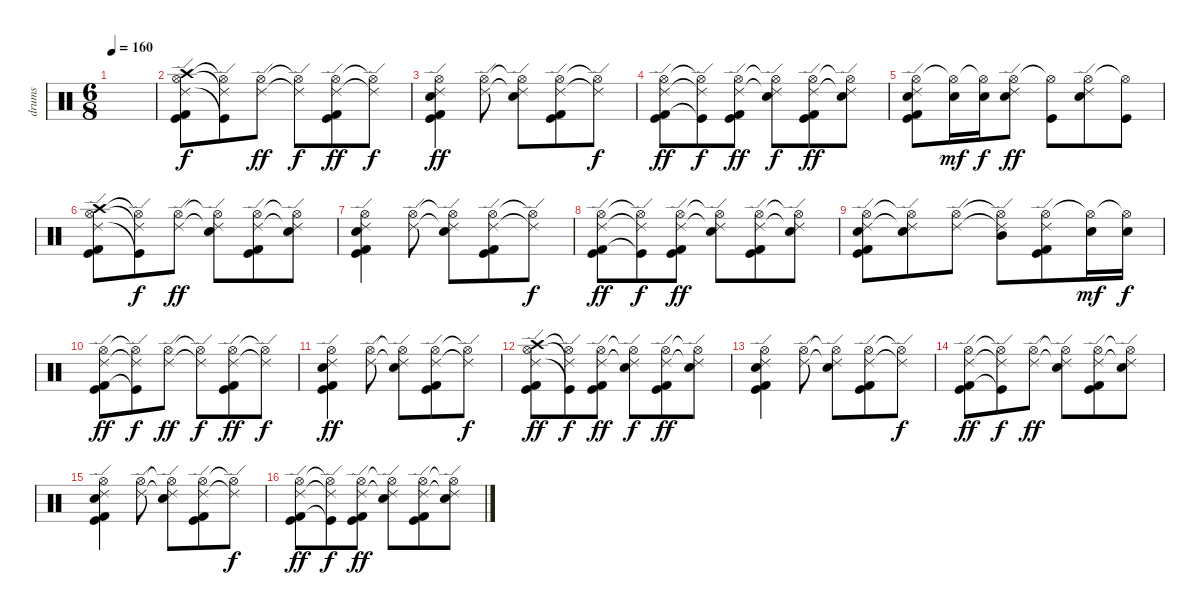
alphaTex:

\track ("drums" "drums") {instrument percussion}
\staff {score}
\articulation defaults
\ts (6 8)
\tempo 160
\clef neutral
\ks c
|
("Crash high (hit)" "Hi-Hat (open)" "Ride (edge) 2" "Kick (hit) 2" "Kick (hit)").8 ("Hi-Hat (open)"{t} "Ride (edge) 2"{t} "Kick (hit)"{t}).8{dy f} ("Hi-Hat (open)" "Ride (edge) 2").8{dy ff} ("Hi-Hat (open)"{t} "Ride (edge) 2"{t}).8{dy f} ("Hi-Hat (open)" "Ride (edge) 2" "Kick (hit) 2" "Kick (hit)").8{dy ff} ("Hi-Hat (open)"{t} "Ride (edge) 2"{t}).8{dy f} |
("Hi-Hat (open)" "Ride (edge) 2" "Snare (hit) 2" "Kick (hit) 2" "Kick (hit)").4{dy ff} ("Hi-Hat (open)" "Ride (edge) 2").8 ("Hi-Hat (open)"{t} "Ride (edge) 2"{t} "Electric Snare (hit)").8 ("Hi-Hat (open)" "Ride (edge) 2" "Kick (hit) 2" "Kick (hit)").8 ("Hi-Hat (open)"{t} "Ride (edge) 2"{t}).8{dy f} |
("Hi-Hat (open)" "Ride (edge) 2" "Kick (hit) 2" "Kick (hit)").8{dy ff} ("Hi-Hat (open)"{t} "Ride (edge) 2"{t} "Kick (hit)"{t}).8{dy f} ("Hi-Hat (open)" "Ride (edge) 2" "Kick (hit) 2" "Kick (hit)").8{dy ff} ("Hi-Hat (open)"{t} "Ride (edge) 2"{t} "Electric Snare (hit)").8{dy f} ("Hi-Hat (open)" "Ride (edge) 2" "Kick (hit) 2" "Kick (hit)").8{dy ff} ("Hi-Hat (open)"{t} "Ride (edge) 2"{t} "Electric Snare (hit)").8 |
("Hi-Hat (open)" "Ride (edge) 2" "Snare (hit) 2" "Kick (hit) 2" "Kick (hit)").8 ("Hi-Hat (open)"{t} "Electric Snare (hit)").16{dy mf} ("Hi-Hat (open)"{t} "Electric Snare (hit)").16{dy f} ("Hi-Hat (open)" "Ride (edge) 2" "Electric Snare (hit)").8{dy ff} ("Hi-Hat (open)"{t} "Kick (hit)").8 ("Hi-Hat (open)" "Ride (edge) 2" "Electric Snare (hit)").8 ("Hi-Hat (open)"{t} "Kick (hit)").8 |
("Crash high (hit)" "Hi-Hat (open)" "Ride (edge) 2" "Kick (hit) 2" "Kick (hit)").8 ("Hi-Hat (open)"{t} "Ride (edge) 2"{t} "Kick (hit)"{t}).8{dy f} ("Hi-Hat (open)" "Ride (edge) 2").8{dy ff} ("Hi-Hat (open)"{t} "Ride (edge) 2"{t} "Electric Snare (hit)").8 ("Hi-Hat (open)" "Ride (edge) 2" "Kick (hit) 2" "Kick (hit)").8 ("Hi-Hat (open)"{t} "Ride (edge) 2"{t} "Electric Snare (hit)").8 |
("Hi-Hat (open)" "Ride (edge) 2" "Snare (hit) 2" "Kick (hit) 2" "Kick (hit)").4 ("Hi-Hat (open)" "Ride (edge) 2").8 ("Hi-Hat (open)"{t} "Ride (edge) 2"{t} "Electric Snare (hit)").8 ("Hi-Hat (open)" "Ride (edge) 2" "Kick (hit) 2" "Kick (hit)").8 ("Hi-Hat (open)"{t} "Ride (edge) 2"{t}).8{dy f} |
("Hi-Hat (open)" "Ride (edge) 2" "Kick (hit) 2" "Kick (hit)").8{dy ff} ("Hi-Hat (open)"{t} "Ride (edge) 2"{t} "Kick (hit)"{t}).8{dy f} ("Hi-Hat (open)" "Ride (edge) 2" "Kick (hit) 2" "Kick (hit)").8{dy ff} ("Hi-Hat (open)"{t} "Ride (edge) 2"{t} "Electric Snare (hit)").8 ("Hi-Hat (open)" "Ride (edge) 2" "Kick (hit) 2" "Kick (hit)").8 ("Hi-Hat (open)"{t} "Ride (edge) 2"{t} "Electric Snare (hit)").8 |
("Hi-Hat (open)" "Ride (edge) 2" "Snare (hit) 2" "Kick (hit) 2" "Kick (hit)").8 ("Hi-Hat (open)"{t} "Ride (edge) 2"{t} "Electric Snare (hit)").8 ("Hi-Hat (open)" "Ride (edge) 2").8 ("Hi-Hat (open)"{t} "Ride (edge) 2"{t} "Mid Tom (hit)").8 ("Hi-Hat (open)" "Ride (edge) 2" "Kick (hit) 2" "Kick (hit)").8 ("Hi-Hat (open)"{t} "Electric Snare (hit)").16{dy mf} ("Hi-Hat (open)"{t} "Electric Snare (hit)").16{dy f} |
("Hi-Hat (open)" "Ride (edge) 2" "Kick (hit) 2" "Kick (hit)").8{dy ff} ("Hi-Hat (open)"{t} "Ride (edge) 2"{t} "Kick (hit)"{t}).8{dy f} ("Hi-Hat (open)" "Ride (edge) 2").8{dy ff} ("Hi-Hat (open)"{t} "Ride (edge) 2"{t}).8{dy f} ("Hi-Hat (open)" "Ride (edge) 2" "Kick (hit) 2" "Kick (hit)").8{dy ff} ("Hi-Hat (open)"{t} "Ride (edge) 2"{t}).8{dy f} |
("Hi-Hat (open)" "Ride (edge) 2" "Snare (hit) 2" "Kick (hit) 2" "Kick (hit)").4{dy ff} ("Hi-Hat (open)" "Ride (edge) 2").8 ("Hi-Hat (open)"{t} "Ride (edge) 2"{t} "Electric Snare (hit)").8 ("Hi-Hat (open)" "Ride (edge) 2" "Kick (hit) 2" "Kick (hit)").8 ("Hi-Hat (open)"{t} "Ride (edge) 2"{t}).8{dy f} |
("Crash high (hit)" "Hi-Hat (open)" "Ride (edge) 2" "Kick (hit) 2" "Kick (hit)").8{dy ff} ("Hi-Hat (open)"{t} "Ride (edge) 2"{t} "Kick (hit)"{t}).8{dy f} ("Hi-Hat (open)" "Ride (edge) 2" "Kick (hit) 2" "Kick (hit)").8{dy ff} ("Hi-Hat (open)"{t} "Ride (edge) 2"{t} "Electric Snare (hit)").8{dy f} ("Hi-Hat (open)" "Ride (edge) 2" "Kick (hit) 2" "Kick (hit)").8{dy ff} ("Hi-Hat (open)"{t} "Ride (edge) 2"{t} "Electric Snare (hit)").8 |
("Hi-Hat (open)" "Ride (edge) 2" "Snare (hit) 2" "Kick (hit) 2" "Kick (hit)").4 ("Hi-Hat (open)" "Ride (edge) 2").8 ("Hi-Hat (open)"{t} "Ride (edge) 2"{t} "Electric Snare (hit)").8 ("Hi-Hat (open)" "Ride (edge) 2" "Kick (hit) 2" "Kick (hit)").8 ("Hi-Hat (open)"{t} "Ride (edge) 2"{t}).8{dy f} |
("Hi-Hat (open)" "Ride (edge) 2" "Kick (hit) 2" "Kick (hit)").8{dy ff} ("Hi-Hat (open)"{t} "Ride (edge) 2"{t} "Kick (hit)"{t}).8{dy f} ("Hi-Hat (open)" "Ride (edge) 2").8{dy ff} ("Hi-Hat (open)"{t} "Ride (edge) 2"{t} "Electric Snare (hit)").8 ("Hi-Hat (open)" "Ride (edge) 2" "Kick (hit) 2" "Kick (hit)").8 ("Hi-Hat (open)"{t} "Ride (edge) 2"{t} "Electric Snare (hit)").8 |
("Hi-Hat (open)" "Ride (edge) 2" "Snare (hit) 2" "Kick (hit) 2" "Kick (hit)").4 ("Hi-Hat (open)" "Ride (edge) 2").8 ("Hi-Hat (open)"{t} "Ride (edge) 2"{t} "Electric Snare (hit)").8 ("Hi-Hat (open)" "Ride (edge) 2" "Kick (hit) 2" "Kick (hit)").8 ("Hi-Hat (open)"{t} "Ride (edge) 2"{t}).8{dy f} |
("Hi-Hat (open)" "Ride (edge) 2" "Kick (hit) 2" "Kick (hit)").8{dy ff} ("Hi-Hat (open)"{t} "Ride (edge) 2"{t} "Kick (hit)"{t}).8{dy f} ("Hi-Hat (open)" "Ride (edge) 2" "Kick (hit) 2" "Kick (hit)").8{dy ff} ("Hi-Hat (open)"{t} "Ride (edge) 2"{t} "Electric Snare (hit)").8 ("Hi-Hat (open)" "Ride (edge) 2" "Kick (hit) 2" "Kick (hit)").8 ("Hi-Hat (open)"{t} "Ride (edge) 2"{t} "Electric Snare (hit)").8
